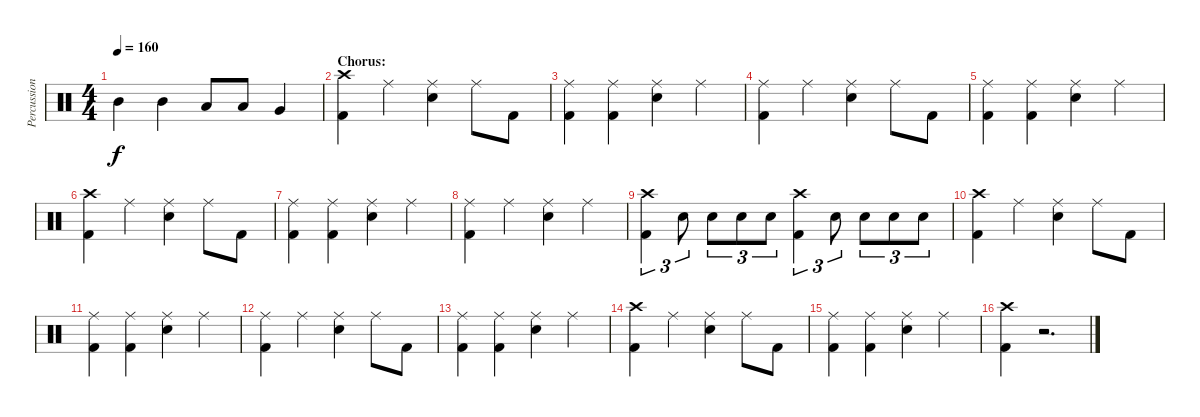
\track ("Percussion" "Percussion") {instrument percussion}
\staff {score}
\articulation defaults
\ts (4 4)
\tempo 160
\clef neutral
\ks c "Mid Tom (hit)".4{dy f} "Mid Tom (hit)".4 "Low Tom (hit)".8 "Low Tom (hit)".8 "Very Low Tom (hit)".4
|
\section ("" "Chorus:")
("Crash high (hit)" "Kick (hit) 2").4 "Ride (middle)".4 ("Ride (middle)" "Electric Snare (hit)").4 "Ride (middle)".8 "Kick (hit) 2".8 |
("Ride (middle)" "Kick (hit) 2").4 ("Ride (middle)" "Kick (hit) 2").4 ("Ride (middle)" "Electric Snare (hit)").4 "Ride (middle)".4 |
("Ride (middle)" "Kick (hit) 2").4 "Ride (middle)".4 ("Ride (middle)" "Electric Snare (hit)").4 "Ride (middle)".8 "Kick (hit) 2".8 |
("Ride (middle)" "Kick (hit) 2").4 ("Ride (middle)" "Kick (hit) 2").4 ("Ride (middle)" "Electric Snare (hit)").4 "Ride (middle)".4 |
("Crash high (hit)" "Kick (hit) 2").4 "Ride (middle)".4 ("Ride (middle)" "Electric Snare (hit)").4 "Ride (middle)".8 "Kick (hit) 2".8 |
("Ride (middle)" "Kick (hit) 2").4 ("Ride (middle)" "Kick (hit) 2").4 ("Ride (middle)" "Electric Snare (hit)").4 "Ride (middle)".4 |
("Ride (middle)" "Kick (hit) 2").4 "Ride (middle)".4 ("Ride (middle)" "Electric Snare (hit)").4 "Ride (middle)".4 |
("Crash high (hit)" "Kick (hit) 2").4{tu (3 2)} "Electric Snare (hit)".8{tu (3 2)} "Electric Snare (hit)".8{tu (3 2)} "Electric Snare (hit)".8{tu (3 2)} "Electric Snare (hit)".8{tu (3 2)} ("Crash high (hit)" "Kick (hit) 2").4{tu (3 2)} "Electric Snare (hit)".8{tu (3 2)} "Electric Snare (hit)".8{tu (3 2)} "Electric Snare (hit)".8{tu (3 2)} "Electric Snare (hit)".8{tu (3 2)} |
("Crash high (hit)" "Kick (hit) 2").4 "Ride (middle)".4 ("Ride (middle)" "Electric Snare (hit)").4 "Ride (middle)".8 "Kick (hit) 2".8 |
("Ride (middle)" "Kick (hit) 2").4 ("Ride (middle)" "Kick (hit) 2").4 ("Ride (middle)" "Electric Snare (hit)").4 "Ride (middle)".4 |
("Ride (middle)" "Kick (hit) 2").4 "Ride (middle)".4 ("Ride (middle)" "Electric Snare (hit)").4 "Ride (middle)".8 "Kick (hit) 2".8 |
("Ride (middle)" "Kick (hit) 2").4 ("Ride (middle)" "Kick (hit) 2").4 ("Ride (middle)" "Electric Snare (hit)").4 "Ride (middle)".4 |
("Crash high (hit)" "Kick (hit) 2").4 "Ride (middle)".4 ("Ride (middle)" "Electric Snare (hit)").4 "Ride (middle)".8 "Kick (hit) 2".8 |
("Ride (middle)" "Kick (hit) 2").4 ("Ride (middle)" "Kick (hit) 2").4 ("Ride (middle)" "Electric Snare (hit)").4 "Ride (middle)".4 |
("Crash high (hit)" "Kick (hit) 2").4 r.2{d}
